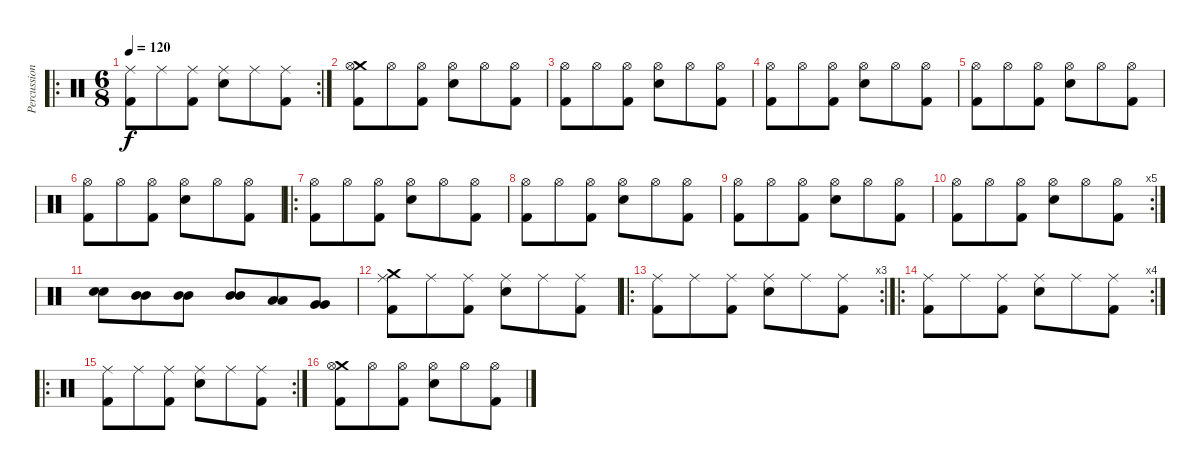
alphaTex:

\track ("Percussions" "Percussion") {instrument percussion}
\staff {score}
\articulation defaults
\ro
\rc 2
\ts (6 8)
\tempo 120
\clef neutral
\ks c
("Ride (middle)" "Kick (hit) 2").8{dy f} "Ride (middle)".8 ("Ride (middle)" "Kick (hit) 2").8 ("Ride (middle)" "Electric Snare (hit)").8 "Ride (middle)".8 ("Ride (middle)" "Kick (hit) 2").8 |
("Crash medium (hit)" "Hi-Hat (open)" "Kick (hit) 2").8 "Hi-Hat (open)".8 ("Hi-Hat (open)" "Kick (hit) 2").8 ("Hi-Hat (open)" "Electric Snare (hit)").8 "Hi-Hat (open)".8 ("Hi-Hat (open)" "Kick (hit) 2").8 |
("Hi-Hat (open)" "Kick (hit) 2").8 "Hi-Hat (open)".8 ("Hi-Hat (open)" "Kick (hit) 2").8 ("Hi-Hat (open)" "Electric Snare (hit)").8 "Hi-Hat (open)".8 ("Hi-Hat (open)" "Kick (hit) 2").8 |
("Hi-Hat (open)" "Kick (hit) 2").8 "Hi-Hat (open)".8 ("Hi-Hat (open)" "Kick (hit) 2").8 ("Hi-Hat (open)" "Electric Snare (hit)").8 "Hi-Hat (open)".8 ("Hi-Hat (open)" "Kick (hit) 2").8 |
("Hi-Hat (open)" "Kick (hit) 2").8 "Hi-Hat (open)".8 ("Hi-Hat (open)" "Kick (hit) 2").8 ("Hi-Hat (open)" "Electric Snare (hit)").8 "Hi-Hat (open)".8 ("Hi-Hat (open)" "Kick (hit) 2").8 |
("Hi-Hat (open)" "Kick (hit) 2").8 "Hi-Hat (open)".8 ("Hi-Hat (open)" "Kick (hit) 2").8 ("Hi-Hat (open)" "Electric Snare (hit)").8 "Hi-Hat (open)".8 ("Hi-Hat (open)" "Kick (hit) 2").8 |
\ro
("Hi-Hat (open)" "Kick (hit) 2").8 "Hi-Hat (open)".8 ("Hi-Hat (open)" "Kick (hit) 2").8 ("Hi-Hat (open)" "Electric Snare (hit)").8 "Hi-Hat (open)".8 ("Hi-Hat (open)" "Kick (hit) 2").8 |
("Hi-Hat (open)" "Kick (hit) 2").8 "Hi-Hat (open)".8 ("Hi-Hat (open)" "Kick (hit) 2").8 ("Hi-Hat (open)" "Electric Snare (hit)").8 "Hi-Hat (open)".8 ("Hi-Hat (open)" "Kick (hit) 2").8 |
("Hi-Hat (open)" "Kick (hit) 2").8 "Hi-Hat (open)".8 ("Hi-Hat (open)" "Kick (hit) 2").8 ("Hi-Hat (open)" "Electric Snare (hit)").8 "Hi-Hat (open)".8 ("Hi-Hat (open)" "Kick (hit) 2").8 |
\rc 5
("Hi-Hat (open)" "Kick (hit) 2").8 "Hi-Hat (open)".8 ("Hi-Hat (open)" "Kick (hit) 2").8 ("Hi-Hat (open)" "Electric Snare (hit)").8 "Hi-Hat (open)".8 ("Hi-Hat (open)" "Kick (hit) 2").8 |
("Electric Snare (hit)" "Electric Snare (hit)").8 ("Mid Tom (hit)" "Mid Tom (hit)").8 ("Mid Tom (hit)" "Mid Tom (hit)").8 ("Mid Tom (hit)" "Mid Tom (hit)").8 ("Low Tom (hit)" "Low Tom (hit)").8 ("Very Low Tom (hit)" "Very Low Tom (hit)").8 |
("Crash medium (hit)" "Ride (middle)" "Kick (hit) 2").8 "Ride (middle)".8 ("Ride (middle)" "Kick (hit) 2").8 ("Ride (middle)" "Electric Snare (hit)").8 "Ride (middle)".8 ("Ride (middle)" "Kick (hit) 2").8 |
\ro
\rc 3
("Ride (middle)" "Kick (hit) 2").8 "Ride (middle)".8 ("Ride (middle)" "Kick (hit) 2").8 ("Ride (middle)" "Electric Snare (hit)").8 "Ride (middle)".8 ("Ride (middle)" "Kick (hit) 2").8 |
\ro
\rc 4
("Ride (middle)" "Kick (hit) 2").8 "Ride (middle)".8 ("Ride (middle)" "Kick (hit) 2").8 ("Ride (middle)" "Electric Snare (hit)").8 "Ride (middle)".8 ("Ride (middle)" "Kick (hit) 2").8 |
\ro
\rc 2
("Ride (middle)" "Kick (hit) 2").8 "Ride (middle)".8 ("Ride (middle)" "Kick (hit) 2").8 ("Ride (middle)" "Electric Snare (hit)").8 "Ride (middle)".8 ("Ride (middle)" "Kick (hit) 2").8 |
("Crash medium (hit)" "Hi-Hat (open)" "Kick (hit) 2").8 "Hi-Hat (open)".8 ("Hi-Hat (open)" "Kick (hit) 2").8 ("Hi-Hat (open)" "Electric Snare (hit)").8 "Hi-Hat (open)".8 ("Hi-Hat (open)" "Kick (hit) 2").8
